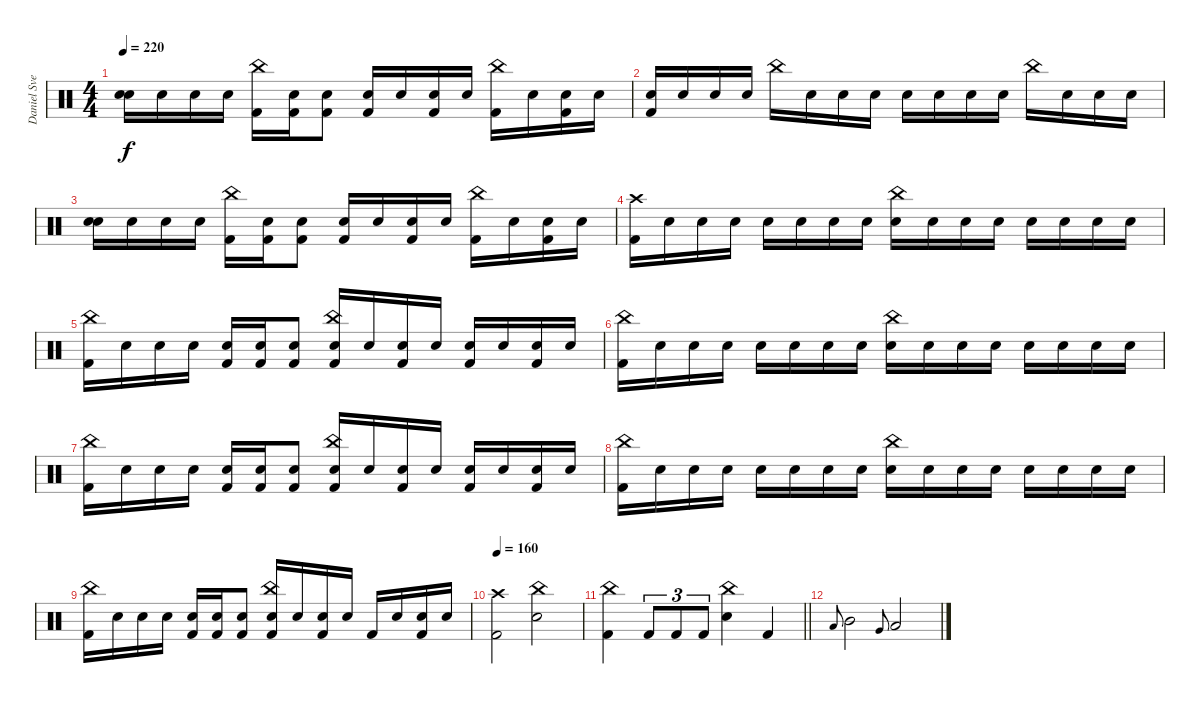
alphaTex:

\track ("Daniel Svensson" "Daniel Sve") {instrument percussion}
\staff {score}
\articulation defaults
\ts (4 4)
\tempo 220
\clef neutral
\ks c
("Snare (hit)" "Electric Snare (hit)").16{dy f} "Snare (hit)".16 "Snare (hit)".16 "Snare (hit)".16 ("China (hit)" "Kick (hit) 2").16 ("Snare (hit)" "Kick (hit) 2").16 ("Snare (hit)" "Kick (hit) 2").8 ("Snare (hit)" "Kick (hit) 2").16 "Snare (hit)".16 ("Snare (hit)" "Kick (hit) 2").16 "Snare (hit)".16 ("China (hit)" "Kick (hit) 2").16 "Snare (hit)".16 ("Snare (hit)" "Kick (hit) 2").16 "Snare (hit)".16 |
("Snare (hit)" "Kick (hit) 2").16 "Snare (hit)".16 "Snare (hit)".16 "Snare (hit)".16 "China (hit)".16 "Snare (hit)".16 "Snare (hit)".16 "Snare (hit)".16 "Snare (hit)".16 "Snare (hit)".16 "Snare (hit)".16 "Snare (hit)".16 "China (hit)".16 "Snare (hit)".16 "Snare (hit)".16 "Snare (hit)".16 |
("Snare (hit)" "Electric Snare (hit)").16 "Snare (hit)".16 "Snare (hit)".16 "Snare (hit)".16 ("China (hit)" "Kick (hit) 2").16 ("Snare (hit)" "Kick (hit) 2").16 ("Snare (hit)" "Kick (hit) 2").8 ("Snare (hit)" "Kick (hit) 2").16 "Snare (hit)".16 ("Snare (hit)" "Kick (hit) 2").16 "Snare (hit)".16 ("China (hit)" "Kick (hit) 2").16 "Snare (hit)".16 ("Snare (hit)" "Kick (hit) 2").16 "Snare (hit)".16 |
("Crash high (hit)" "Kick (hit) 2").16 "Snare (hit)".16 "Snare (hit)".16 "Snare (hit)".16 "Snare (hit)".16 "Snare (hit)".16 "Snare (hit)".16 "Snare (hit)".16 ("China (hit)" "Electric Snare (hit)").16 "Snare (hit)".16 "Snare (hit)".16 "Snare (hit)".16 "Snare (hit)".16 "Snare (hit)".16 "Snare (hit)".16 "Snare (hit)".16 |
("China (hit)" "Kick (hit) 2").16 "Snare (hit)".16 "Snare (hit)".16 "Snare (hit)".16 ("Snare (hit)" "Kick (hit) 2").16 ("Snare (hit)" "Kick (hit) 2").16 ("Snare (hit)" "Kick (hit) 2").8 ("China (hit)" "Electric Snare (hit)" "Kick (hit) 2").16 "Snare (hit)".16 ("Snare (hit)" "Kick (hit) 2").16 "Snare (hit)".16 ("Snare (hit)" "Kick (hit) 2").16 "Snare (hit)".16 ("Snare (hit)" "Kick (hit) 2").16 "Snare (hit)".16 |
("China (hit)" "Kick (hit) 2").16 "Snare (hit)".16 "Snare (hit)".16 "Snare (hit)".16 "Snare (hit)".16 "Snare (hit)".16 "Snare (hit)".16 "Snare (hit)".16 ("China (hit)" "Electric Snare (hit)").16 "Snare (hit)".16 "Snare (hit)".16 "Snare (hit)".16 "Snare (hit)".16 "Snare (hit)".16 "Snare (hit)".16 "Snare (hit)".16 |
("China (hit)" "Kick (hit) 2").16 "Snare (hit)".16 "Snare (hit)".16 "Snare (hit)".16 ("Snare (hit)" "Kick (hit) 2").16 ("Snare (hit)" "Kick (hit) 2").16 ("Snare (hit)" "Kick (hit) 2").8 ("China (hit)" "Electric Snare (hit)" "Kick (hit) 2").16 "Snare (hit)".16 ("Snare (hit)" "Kick (hit) 2").16 "Snare (hit)".16 ("Snare (hit)" "Kick (hit) 2").16 "Snare (hit)".16 ("Snare (hit)" "Kick (hit) 2").16 "Snare (hit)".16 |
("China (hit)" "Kick (hit) 2").16 "Snare (hit)".16 "Snare (hit)".16 "Snare (hit)".16 "Snare (hit)".16 "Snare (hit)".16 "Snare (hit)".16 "Snare (hit)".16 ("China (hit)" "Electric Snare (hit)").16 "Snare (hit)".16 "Snare (hit)".16 "Snare (hit)".16 "Snare (hit)".16 "Snare (hit)".16 "Snare (hit)".16 "Snare (hit)".16 |
("China (hit)" "Kick (hit) 2").16 "Snare (hit)".16 "Snare (hit)".16 "Snare (hit)".16 ("Snare (hit)" "Kick (hit) 2").16 ("Snare (hit)" "Kick (hit) 2").16 ("Snare (hit)" "Kick (hit) 2").8 ("China (hit)" "Electric Snare (hit)" "Kick (hit) 2").16 "Snare (hit)".16 ("Snare (hit)" "Kick (hit) 2").16 "Snare (hit)".16 "Kick (hit) 2".16 "Snare (hit)".16 ("Snare (hit)" "Kick (hit) 2").16 "Snare (hit)".16 |
\tempo 160
("Crash high (hit)" "Kick (hit) 2").2 ("China (hit)" "Electric Snare (hit)").2 |
\barLineRight lightlight
("China (hit)" "Kick (hit) 2").4 "Kick (hit) 2".8{tu (3 2)} "Kick (hit) 2".8{tu (3 2)} "Kick (hit) 2".8{tu (3 2)} ("China (hit)" "Electric Snare (hit)").4 "Kick (hit) 2".4 |
"Low Tom (hit)".8{gr onbeat} "Mid Tom (hit)".2 "Very Low Tom (hit)".8{gr onbeat} "Low Tom (hit)".2
